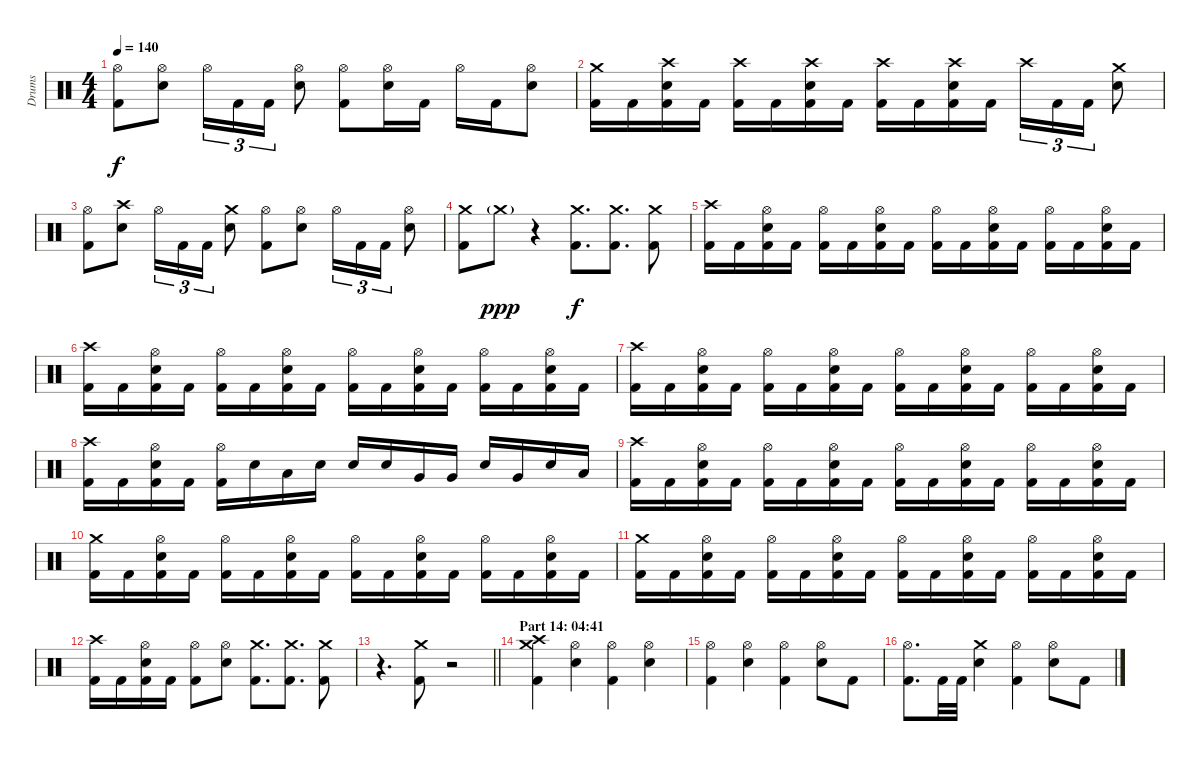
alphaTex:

\track ("Drums" "Drums") {instrument percussion}
\staff {score}
\articulation defaults
\ts (4 4)
\tempo 140
\clef neutral
\ks c
("Hi-Hat (open)" "Kick (hit) 2").8{dy f} ("Hi-Hat (open)" "Electric Snare (hit)").8 "Hi-Hat (open)".16{tu (3 2)} "Kick (hit) 2".16{tu (3 2)} "Kick (hit) 2".16{tu (3 2)} ("Hi-Hat (open)" "Electric Snare (hit)").8 ("Hi-Hat (open)" "Kick (hit) 2").8 ("Hi-Hat (open)" "Electric Snare (hit)").16 "Kick (hit) 2".16 "Hi-Hat (open)".16 "Kick (hit) 2".16 ("Hi-Hat (open)" "Electric Snare (hit)").8 |
("Crash medium (hit)" "Kick (hit) 2").16 "Kick (hit) 2".16 ("Crash high (hit)" "Electric Snare (hit)" "Kick (hit) 2").16 "Kick (hit) 2".16 ("Crash high (hit)" "Kick (hit) 2").16 "Kick (hit) 2".16 ("Crash high (hit)" "Electric Snare (hit)" "Kick (hit) 2").16 "Kick (hit) 2".16 ("Crash high (hit)" "Kick (hit) 2").16 "Kick (hit) 2".16 ("Crash high (hit)" "Electric Snare (hit)" "Kick (hit) 2").16 "Kick (hit) 2".16 "Crash high (hit)".16{tu (3 2)} "Kick (hit) 2".16{tu (3 2)} "Kick (hit) 2".16{tu (3 2)} ("Crash medium (hit)" "Electric Snare (hit)").8 |
("Hi-Hat (open)" "Kick (hit) 2").8 ("Crash high (hit)" "Electric Snare (hit)").8 "Hi-Hat (open)".16{tu (3 2)} "Kick (hit) 2".16{tu (3 2)} "Kick (hit) 2".16{tu (3 2)} ("Crash medium (hit)" "Electric Snare (hit)").8 ("Hi-Hat (open)" "Kick (hit) 2").8 ("Hi-Hat (open)" "Electric Snare (hit)").8 "Hi-Hat (open)".16{tu (3 2)} "Kick (hit) 2".16{tu (3 2)} "Kick (hit) 2".16{tu (3 2)} ("Hi-Hat (open)" "Electric Snare (hit)").8 |
("Crash medium (hit)" "Kick (hit) 2").8 "Crash medium (hit)"{g}.8{dy ppp} r.4 ("Crash medium (hit)" "Kick (hit) 2").8{d dy f} ("Crash medium (hit)" "Kick (hit) 2").8{d} ("Crash medium (hit)" "Kick (hit) 2").8 |
("Crash high (hit)" "Kick (hit) 2").16 "Kick (hit) 2".16 ("Hi-Hat (open)" "Electric Snare (hit)" "Kick (hit) 2").16 "Kick (hit) 2".16 ("Hi-Hat (open)" "Kick (hit) 2").16 "Kick (hit) 2".16 ("Hi-Hat (open)" "Electric Snare (hit)" "Kick (hit) 2").16 "Kick (hit) 2".16 ("Hi-Hat (open)" "Kick (hit) 2").16 "Kick (hit) 2".16 ("Hi-Hat (open)" "Electric Snare (hit)" "Kick (hit) 2").16 "Kick (hit) 2".16 ("Hi-Hat (open)" "Kick (hit) 2").16 "Kick (hit) 2".16 ("Hi-Hat (open)" "Electric Snare (hit)" "Kick (hit) 2").16 "Kick (hit) 2".16 |
("Crash high (hit)" "Kick (hit) 2").16 "Kick (hit) 2".16 ("Hi-Hat (open)" "Electric Snare (hit)" "Kick (hit) 2").16 "Kick (hit) 2".16 ("Hi-Hat (open)" "Kick (hit) 2").16 "Kick (hit) 2".16 ("Hi-Hat (open)" "Electric Snare (hit)" "Kick (hit) 2").16 "Kick (hit) 2".16 ("Hi-Hat (open)" "Kick (hit) 2").16 "Kick (hit) 2".16 ("Hi-Hat (open)" "Electric Snare (hit)" "Kick (hit) 2").16 "Kick (hit) 2".16 ("Hi-Hat (open)" "Kick (hit) 2").16 "Kick (hit) 2".16 ("Hi-Hat (open)" "Electric Snare (hit)" "Kick (hit) 2").16 "Kick (hit) 2".16 |
("Crash high (hit)" "Kick (hit) 2").16 "Kick (hit) 2".16 ("Hi-Hat (open)" "Electric Snare (hit)" "Kick (hit) 2").16 "Kick (hit) 2".16 ("Hi-Hat (open)" "Kick (hit) 2").16 "Kick (hit) 2".16 ("Hi-Hat (open)" "Electric Snare (hit)" "Kick (hit) 2").16 "Kick (hit) 2".16 ("Hi-Hat (open)" "Kick (hit) 2").16 "Kick (hit) 2".16 ("Hi-Hat (open)" "Electric Snare (hit)" "Kick (hit) 2").16 "Kick (hit) 2".16 ("Hi-Hat (open)" "Kick (hit) 2").16 "Kick (hit) 2".16 ("Hi-Hat (open)" "Electric Snare (hit)" "Kick (hit) 2").16 "Kick (hit) 2".16 |
("Crash high (hit)" "Kick (hit) 2").16 "Kick (hit) 2".16 ("Hi-Hat (open)" "Electric Snare (hit)" "Kick (hit) 2").16 "Kick (hit) 2".16 ("Hi-Hat (open)" "Kick (hit) 2").16 "Electric Snare (hit)".16 "Low Tom (hit)".16 "Electric Snare (hit)".16 "Electric Snare (hit)".16 "Electric Snare (hit)".16 "Very Low Tom (hit)".16 "Very Low Tom (hit)".16 "Electric Snare (hit)".16 "Very Low Tom (hit)".16 "Electric Snare (hit)".16 "Low Floor Tom (hit)".16 |
("Crash high (hit)" "Kick (hit) 2").16 "Kick (hit) 2".16 ("Hi-Hat (open)" "Electric Snare (hit)" "Kick (hit) 2").16 "Kick (hit) 2".16 ("Hi-Hat (open)" "Kick (hit) 2").16 "Kick (hit) 2".16 ("Hi-Hat (open)" "Electric Snare (hit)" "Kick (hit) 2").16 "Kick (hit) 2".16 ("Hi-Hat (open)" "Kick (hit) 2").16 "Kick (hit) 2".16 ("Hi-Hat (open)" "Electric Snare (hit)" "Kick (hit) 2").16 "Kick (hit) 2".16 ("Hi-Hat (open)" "Kick (hit) 2").16 "Kick (hit) 2".16 ("Hi-Hat (open)" "Electric Snare (hit)" "Kick (hit) 2").16 "Kick (hit) 2".16 |
("Crash medium (hit)" "Kick (hit) 2").16 "Kick (hit) 2".16 ("Hi-Hat (open)" "Electric Snare (hit)" "Kick (hit) 2").16 "Kick (hit) 2".16 ("Hi-Hat (open)" "Kick (hit) 2").16 "Kick (hit) 2".16 ("Hi-Hat (open)" "Electric Snare (hit)" "Kick (hit) 2").16 "Kick (hit) 2".16 ("Hi-Hat (open)" "Kick (hit) 2").16 "Kick (hit) 2".16 ("Hi-Hat (open)" "Electric Snare (hit)" "Kick (hit) 2").16 "Kick (hit) 2".16 ("Hi-Hat (open)" "Kick (hit) 2").16 "Kick (hit) 2".16 ("Hi-Hat (open)" "Electric Snare (hit)" "Kick (hit) 2").16 "Kick (hit) 2".16 |
("Crash medium (hit)" "Kick (hit) 2").16 "Kick (hit) 2".16 ("Hi-Hat (open)" "Electric Snare (hit)" "Kick (hit) 2").16 "Kick (hit) 2".16 ("Hi-Hat (open)" "Kick (hit) 2").16 "Kick (hit) 2".16 ("Hi-Hat (open)" "Electric Snare (hit)" "Kick (hit) 2").16 "Kick (hit) 2".16 ("Hi-Hat (open)" "Kick (hit) 2").16 "Kick (hit) 2".16 ("Hi-Hat (open)" "Electric Snare (hit)" "Kick (hit) 2").16 "Kick (hit) 2".16 ("Hi-Hat (open)" "Kick (hit) 2").16 "Kick (hit) 2".16 ("Hi-Hat (open)" "Electric Snare (hit)" "Kick (hit) 2").16 "Kick (hit) 2".16 |
("Crash high (hit)" "Kick (hit) 2").16 "Kick (hit) 2".16 ("Hi-Hat (open)" "Electric Snare (hit)" "Kick (hit) 2").16 "Kick (hit) 2".16 ("Hi-Hat (open)" "Kick (hit) 2").8 ("Hi-Hat (open)" "Electric Snare (hit)").8 ("Crash medium (hit)" "Kick (hit) 2").8{d} ("Crash medium (hit)" "Kick (hit) 2").8{d} ("Crash medium (hit)" "Kick (hit) 2").8 |
\barLineRight lightlight
r.4{d} ("Crash medium (hit)" "Kick (hit) 2").8 r.2 |
\section ("" "Part 14: 04:41")
("Crash high (hit)" "Crash medium (hit)" "Kick (hit) 2").4 ("Hi-Hat (open)" "Electric Snare (hit)").4 ("Hi-Hat (open)" "Kick (hit) 2").4 ("Hi-Hat (open)" "Electric Snare (hit)").4 |
("Hi-Hat (open)" "Kick (hit) 2").4 ("Hi-Hat (open)" "Electric Snare (hit)").4 ("Hi-Hat (open)" "Kick (hit) 2").4 ("Hi-Hat (open)" "Electric Snare (hit)").8 "Kick (hit) 2".8 |
("Hi-Hat (open)" "Kick (hit) 2").8{d} "Kick (hit) 2".32 "Kick (hit) 2".32 ("Crash medium (hit)" "Electric Snare (hit)").4 ("Hi-Hat (open)" "Kick (hit) 2").4 ("Hi-Hat (open)" "Electric Snare (hit)").8 "Kick (hit) 2".8
